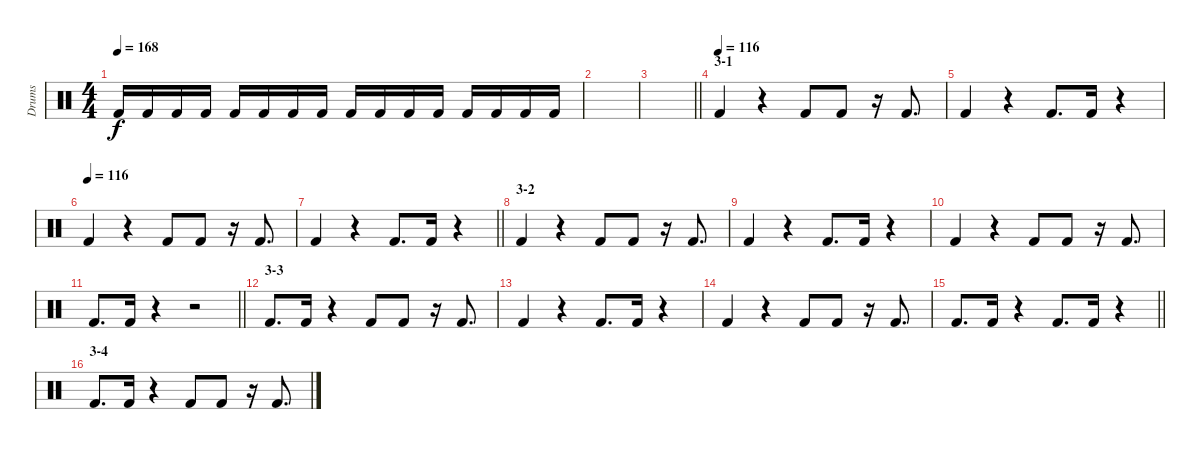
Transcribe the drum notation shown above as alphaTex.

\track ("Drums" "Drums") {instrument percussion}
\staff {score}
\articulation defaults
\ts (4 4)
\tempo 168
\clef neutral
\ks c "Kick (hit) 2".16{dy f} "Kick (hit) 2".16 "Kick (hit) 2".16 "Kick (hit) 2".16 "Kick (hit) 2".16 "Kick (hit) 2".16 "Kick (hit) 2".16 "Kick (hit) 2".16 "Kick (hit) 2".16 "Kick (hit) 2".16 "Kick (hit) 2".16 "Kick (hit) 2".16 "Kick (hit) 2".16 "Kick (hit) 2".16 "Kick (hit) 2".16 "Kick (hit) 2".16
|
|
\barLineRight lightlight
|
\section ("" "3-1")
\tempo (116)
"Kick (hit) 2".4 r.4 "Kick (hit) 2".8 "Kick (hit) 2".8 r.16 "Kick (hit) 2".8{d} |
"Kick (hit) 2".4 r.4 "Kick (hit) 2".8{d} "Kick (hit) 2".16 r.4 |
\tempo (116)
"Kick (hit) 2".4 r.4 "Kick (hit) 2".8 "Kick (hit) 2".8 r.16 "Kick (hit) 2".8{d} |
\barLineRight lightlight "Kick (hit) 2".4
r.4 "Kick (hit) 2".8{d} "Kick (hit) 2".16 r.4 |
\section ("" "3-2")
"Kick (hit) 2".4 r.4 "Kick (hit) 2".8 "Kick (hit) 2".8 r.16 "Kick (hit) 2".8{d} |
"Kick (hit) 2".4 r.4 "Kick (hit) 2".8{d} "Kick (hit) 2".16 r.4 |
"Kick (hit) 2".4 r.4 "Kick (hit) 2".8 "Kick (hit) 2".8 r.16 "Kick (hit) 2".8{d} |
\barLineRight lightlight "Kick (hit) 2".8{d} "Kick (hit) 2".16
r.4 r.2 |
\section ("" "3-3")
"Kick (hit) 2".8{d} "Kick (hit) 2".16 r.4 "Kick (hit) 2".8 "Kick (hit) 2".8 r.16 "Kick (hit) 2".8{d} |
"Kick (hit) 2".4 r.4 "Kick (hit) 2".8{d} "Kick (hit) 2".16 r.4 |
"Kick (hit) 2".4 r.4 "Kick (hit) 2".8 "Kick (hit) 2".8 r.16 "Kick (hit) 2".8{d} |
\barLineRight lightlight "Kick (hit) 2".8{d} "Kick (hit) 2".16
r.4 "Kick (hit) 2".8{d} "Kick (hit) 2".16 r.4 |
\section ("" "3-4")
"Kick (hit) 2".8{d} "Kick (hit) 2".16 r.4 "Kick (hit) 2".8 "Kick (hit) 2".8 r.16 "Kick (hit) 2".8{d}
